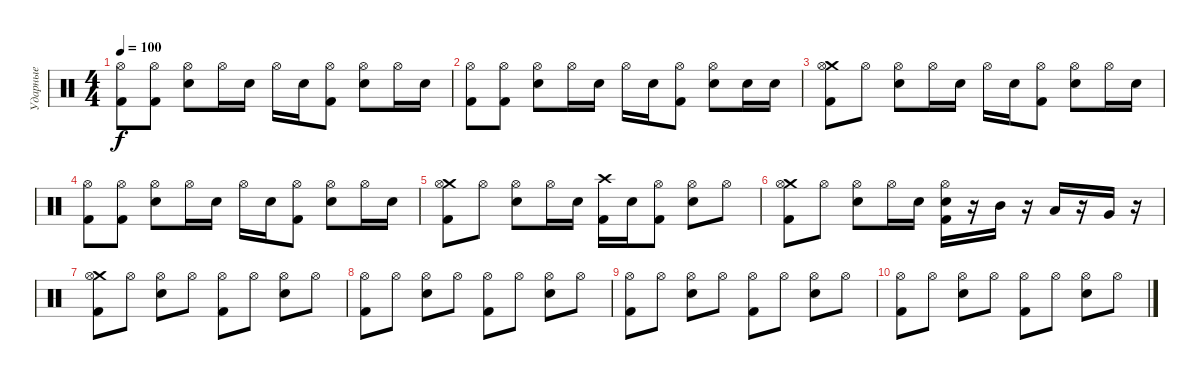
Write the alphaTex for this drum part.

\track ("Ударные" "Ударные") {instrument percussion}
\staff {score}
\articulation defaults
\ts (4 4)
\tempo 100
\clef neutral
\ks c
("Hi-Hat (open)" "Kick (hit) 2").8{dy f} ("Hi-Hat (open)" "Kick (hit) 2").8 ("Hi-Hat (open)" "Electric Snare (hit)").8 "Hi-Hat (open)".16 "Electric Snare (hit)".16 "Hi-Hat (open)".16 "Electric Snare (hit)".16 ("Hi-Hat (open)" "Kick (hit) 2").8 ("Hi-Hat (open)" "Electric Snare (hit)").8 "Hi-Hat (open)".16 "Electric Snare (hit)".16 |
("Hi-Hat (open)" "Kick (hit) 2").8 ("Hi-Hat (open)" "Kick (hit) 2").8 ("Hi-Hat (open)" "Electric Snare (hit)").8 "Hi-Hat (open)".16 "Electric Snare (hit)".16 "Hi-Hat (open)".16 "Electric Snare (hit)".16 ("Hi-Hat (open)" "Kick (hit) 2").8 ("Hi-Hat (open)" "Electric Snare (hit)").8 "Electric Snare (hit)".16 "Electric Snare (hit)".16 |
("Crash medium (hit)" "Hi-Hat (open)" "Kick (hit) 2").8 "Hi-Hat (open)".8 ("Hi-Hat (open)" "Electric Snare (hit)").8 "Hi-Hat (open)".16 "Electric Snare (hit)".16 "Hi-Hat (open)".16 "Electric Snare (hit)".16 ("Hi-Hat (open)" "Kick (hit) 2").8 ("Hi-Hat (open)" "Electric Snare (hit)").8 "Hi-Hat (open)".16 "Electric Snare (hit)".16 |
("Hi-Hat (open)" "Kick (hit) 2").8 ("Hi-Hat (open)" "Kick (hit) 2").8 ("Hi-Hat (open)" "Electric Snare (hit)").8 "Hi-Hat (open)".16 "Electric Snare (hit)".16 "Hi-Hat (open)".16 "Electric Snare (hit)".16 ("Hi-Hat (open)" "Kick (hit) 2").8 ("Hi-Hat (open)" "Electric Snare (hit)").8 "Hi-Hat (open)".16 "Electric Snare (hit)".16 |
("Crash medium (hit)" "Hi-Hat (open)" "Kick (hit) 2").8 "Hi-Hat (open)".8 ("Hi-Hat (open)" "Electric Snare (hit)").8 "Hi-Hat (open)".16 "Electric Snare (hit)".16 ("Crash high (hit)" "Kick (hit) 2").16 "Electric Snare (hit)".16 ("Hi-Hat (open)" "Kick (hit) 2").8 ("Hi-Hat (open)" "Electric Snare (hit)").8 "Hi-Hat (open)".8 |
("Crash medium (hit)" "Hi-Hat (open)" "Kick (hit) 2").8 "Hi-Hat (open)".8 ("Hi-Hat (open)" "Electric Snare (hit)").8 "Hi-Hat (open)".16 "Electric Snare (hit)".16 ("Hi-Hat (open)" "Electric Snare (hit)" "Kick (hit) 2").16 r.16 "Mid Tom (hit)".16 r.16 "Low Tom (hit)".16 r.16 "Very Low Tom (hit)".16 r.16 |
("Crash medium (hit)" "Hi-Hat (open)" "Kick (hit) 2").8 "Hi-Hat (open)".8 ("Hi-Hat (open)" "Electric Snare (hit)").8 "Hi-Hat (open)".8 ("Hi-Hat (open)" "Kick (hit) 2").8 "Hi-Hat (open)".8 ("Hi-Hat (open)" "Electric Snare (hit)").8 "Hi-Hat (open)".8 |
("Hi-Hat (open)" "Kick (hit) 2").8 "Hi-Hat (open)".8 ("Hi-Hat (open)" "Electric Snare (hit)").8 "Hi-Hat (open)".8 ("Hi-Hat (open)" "Kick (hit) 2").8 "Hi-Hat (open)".8 ("Hi-Hat (open)" "Electric Snare (hit)").8 "Hi-Hat (open)".8 |
("Hi-Hat (open)" "Kick (hit) 2").8 "Hi-Hat (open)".8 ("Hi-Hat (open)" "Electric Snare (hit)").8 "Hi-Hat (open)".8 ("Hi-Hat (open)" "Kick (hit) 2").8 "Hi-Hat (open)".8 ("Hi-Hat (open)" "Electric Snare (hit)").8 "Hi-Hat (open)".8 |
("Hi-Hat (open)" "Kick (hit) 2").8 "Hi-Hat (open)".8 ("Hi-Hat (open)" "Electric Snare (hit)").8 "Hi-Hat (open)".8 ("Hi-Hat (open)" "Kick (hit) 2").8 "Hi-Hat (open)".8 ("Hi-Hat (open)" "Electric Snare (hit)").8 "Hi-Hat (open)".8
